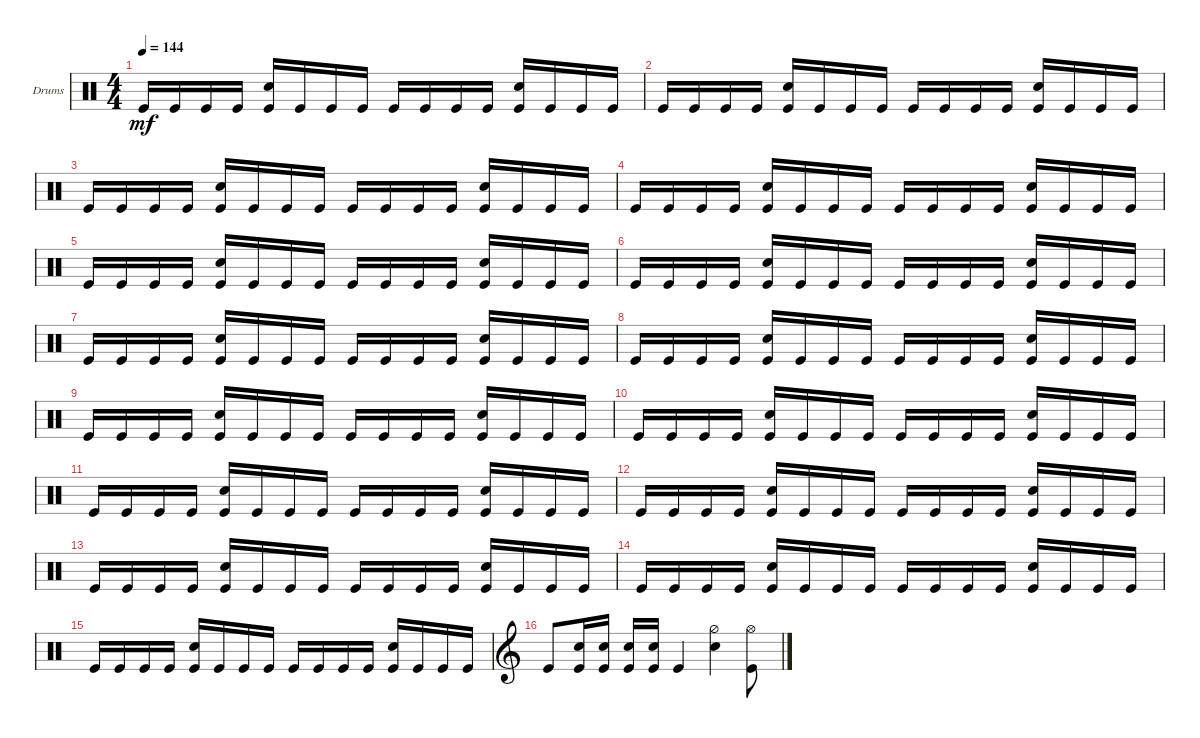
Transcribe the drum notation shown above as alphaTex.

\bracketExtendMode groupsimilarinstruments
\firstSystemTrackNameOrientation horizontal
\otherSystemsTrackNameOrientation horizontal
\track ("Drums" "Drums") {instrument percussion}
\staff {score}
\articulation defaults
\ts (4 4)
\tempo 144
\clef neutral
\ks c "Kick (hit)".16{dy mf} "Kick (hit)".16 "Kick (hit)".16 "Kick (hit)".16
("Kick (hit)" "Snare (hit) 2").16 "Kick (hit)".16 "Kick (hit)".16 "Kick (hit)".16 "Kick (hit)".16 "Kick (hit)".16 "Kick (hit)".16 "Kick (hit)".16 ("Kick (hit)" "Snare (hit) 2").16 "Kick (hit)".16 "Kick (hit)".16 "Kick (hit)".16 |
"Kick (hit)".16 "Kick (hit)".16 "Kick (hit)".16 "Kick (hit)".16 ("Kick (hit)" "Snare (hit) 2").16 "Kick (hit)".16 "Kick (hit)".16 "Kick (hit)".16 "Kick (hit)".16 "Kick (hit)".16 "Kick (hit)".16 "Kick (hit)".16 ("Kick (hit)" "Snare (hit) 2").16 "Kick (hit)".16 "Kick (hit)".16 "Kick (hit)".16 |
"Kick (hit)".16 "Kick (hit)".16 "Kick (hit)".16 "Kick (hit)".16 ("Kick (hit)" "Snare (hit) 2").16 "Kick (hit)".16 "Kick (hit)".16 "Kick (hit)".16 "Kick (hit)".16 "Kick (hit)".16 "Kick (hit)".16 "Kick (hit)".16 ("Kick (hit)" "Snare (hit) 2").16 "Kick (hit)".16 "Kick (hit)".16 "Kick (hit)".16 |
"Kick (hit)".16 "Kick (hit)".16 "Kick (hit)".16 "Kick (hit)".16 ("Kick (hit)" "Snare (hit) 2").16 "Kick (hit)".16 "Kick (hit)".16 "Kick (hit)".16 "Kick (hit)".16 "Kick (hit)".16 "Kick (hit)".16 "Kick (hit)".16 ("Kick (hit)" "Snare (hit) 2").16 "Kick (hit)".16 "Kick (hit)".16 "Kick (hit)".16 |
"Kick (hit)".16 "Kick (hit)".16 "Kick (hit)".16 "Kick (hit)".16 ("Kick (hit)" "Snare (hit) 2").16 "Kick (hit)".16 "Kick (hit)".16 "Kick (hit)".16 "Kick (hit)".16 "Kick (hit)".16 "Kick (hit)".16 "Kick (hit)".16 ("Kick (hit)" "Snare (hit) 2").16 "Kick (hit)".16 "Kick (hit)".16 "Kick (hit)".16 |
"Kick (hit)".16 "Kick (hit)".16 "Kick (hit)".16 "Kick (hit)".16 ("Kick (hit)" "Snare (hit) 2").16 "Kick (hit)".16 "Kick (hit)".16 "Kick (hit)".16 "Kick (hit)".16 "Kick (hit)".16 "Kick (hit)".16 "Kick (hit)".16 ("Kick (hit)" "Snare (hit) 2").16 "Kick (hit)".16 "Kick (hit)".16 "Kick (hit)".16 |
"Kick (hit)".16 "Kick (hit)".16 "Kick (hit)".16 "Kick (hit)".16 ("Kick (hit)" "Snare (hit) 2").16 "Kick (hit)".16 "Kick (hit)".16 "Kick (hit)".16 "Kick (hit)".16 "Kick (hit)".16 "Kick (hit)".16 "Kick (hit)".16 ("Kick (hit)" "Snare (hit) 2").16 "Kick (hit)".16 "Kick (hit)".16 "Kick (hit)".16 |
"Kick (hit)".16 "Kick (hit)".16 "Kick (hit)".16 "Kick (hit)".16 ("Kick (hit)" "Snare (hit) 2").16 "Kick (hit)".16 "Kick (hit)".16 "Kick (hit)".16 "Kick (hit)".16 "Kick (hit)".16 "Kick (hit)".16 "Kick (hit)".16 ("Kick (hit)" "Snare (hit) 2").16 "Kick (hit)".16 "Kick (hit)".16 "Kick (hit)".16 |
"Kick (hit)".16 "Kick (hit)".16 "Kick (hit)".16 "Kick (hit)".16 ("Kick (hit)" "Snare (hit) 2").16 "Kick (hit)".16 "Kick (hit)".16 "Kick (hit)".16 "Kick (hit)".16 "Kick (hit)".16 "Kick (hit)".16 "Kick (hit)".16 ("Kick (hit)" "Snare (hit) 2").16 "Kick (hit)".16 "Kick (hit)".16 "Kick (hit)".16 |
"Kick (hit)".16 "Kick (hit)".16 "Kick (hit)".16 "Kick (hit)".16 ("Kick (hit)" "Snare (hit) 2").16 "Kick (hit)".16 "Kick (hit)".16 "Kick (hit)".16 "Kick (hit)".16 "Kick (hit)".16 "Kick (hit)".16 "Kick (hit)".16 ("Kick (hit)" "Snare (hit) 2").16 "Kick (hit)".16 "Kick (hit)".16 "Kick (hit)".16 |
"Kick (hit)".16 "Kick (hit)".16 "Kick (hit)".16 "Kick (hit)".16 ("Kick (hit)" "Snare (hit) 2").16 "Kick (hit)".16 "Kick (hit)".16 "Kick (hit)".16 "Kick (hit)".16 "Kick (hit)".16 "Kick (hit)".16 "Kick (hit)".16 ("Kick (hit)" "Snare (hit) 2").16 "Kick (hit)".16 "Kick (hit)".16 "Kick (hit)".16 |
"Kick (hit)".16 "Kick (hit)".16 "Kick (hit)".16 "Kick (hit)".16 ("Kick (hit)" "Snare (hit) 2").16 "Kick (hit)".16 "Kick (hit)".16 "Kick (hit)".16 "Kick (hit)".16 "Kick (hit)".16 "Kick (hit)".16 "Kick (hit)".16 ("Kick (hit)" "Snare (hit) 2").16 "Kick (hit)".16 "Kick (hit)".16 "Kick (hit)".16 |
"Kick (hit)".16 "Kick (hit)".16 "Kick (hit)".16 "Kick (hit)".16 ("Kick (hit)" "Snare (hit) 2").16 "Kick (hit)".16 "Kick (hit)".16 "Kick (hit)".16 "Kick (hit)".16 "Kick (hit)".16 "Kick (hit)".16 "Kick (hit)".16 ("Kick (hit)" "Snare (hit) 2").16 "Kick (hit)".16 "Kick (hit)".16 "Kick (hit)".16 |
"Kick (hit)".16 "Kick (hit)".16 "Kick (hit)".16 "Kick (hit)".16 ("Kick (hit)" "Snare (hit) 2").16 "Kick (hit)".16 "Kick (hit)".16 "Kick (hit)".16 "Kick (hit)".16 "Kick (hit)".16 "Kick (hit)".16 "Kick (hit)".16 ("Kick (hit)" "Snare (hit) 2").16 "Kick (hit)".16 "Kick (hit)".16 "Kick (hit)".16 |
"Kick (hit)".16 "Kick (hit)".16 "Kick (hit)".16 "Kick (hit)".16 ("Kick (hit)" "Snare (hit) 2").16 "Kick (hit)".16 "Kick (hit)".16 "Kick (hit)".16 "Kick (hit)".16 "Kick (hit)".16 "Kick (hit)".16 "Kick (hit)".16 ("Kick (hit)" "Snare (hit) 2").16 "Kick (hit)".16 "Kick (hit)".16 "Kick (hit)".16 |
\clef g2 "Kick (hit)".8
("Kick (hit)" "Snare (hit) 2").16 ("Kick (hit)" "Snare (hit) 2").16 ("Kick (hit)" "Snare (hit) 2").16 ("Kick (hit)" "Snare (hit) 2").16 "Kick (hit)".4 ("Snare (hit) 2" "Hi-Hat (half)").4 ("Kick (hit)" "Hi-Hat (open)").8
